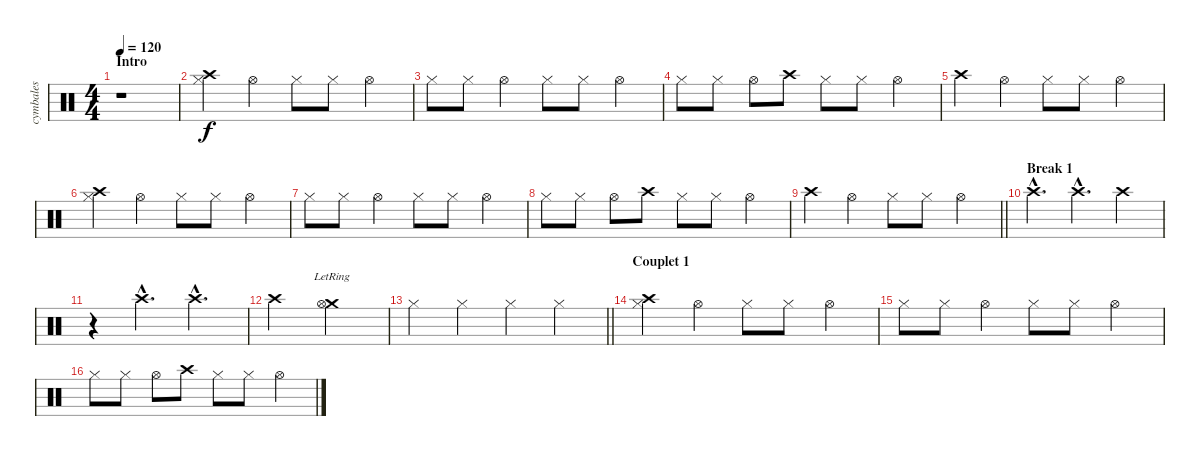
\track ("cymbales" "cymbales") {instrument percussion}
\staff {score}
\articulation defaults
\ts (4 4)
\section ("" "Intro")
\tempo 120
\clef neutral
\ks c
r.1{dy f} |
("Crash high (hit)" "Hi-Hat (closed)").4 "Hi-Hat (open)".4 "Hi-Hat (closed)".8 "Hi-Hat (closed)".8 "Hi-Hat (open)".4 |
"Hi-Hat (closed)".8 "Hi-Hat (closed)".8 "Hi-Hat (open)".4 "Hi-Hat (closed)".8 "Hi-Hat (closed)".8 "Hi-Hat (open)".4 |
"Hi-Hat (closed)".8 "Hi-Hat (closed)".8 "Hi-Hat (open)".8 "Crash high (hit)".8 "Hi-Hat (closed)".8 "Hi-Hat (closed)".8 "Hi-Hat (open)".4 |
"Crash high (hit)".4 "Hi-Hat (open)".4 "Hi-Hat (closed)".8 "Hi-Hat (closed)".8 "Hi-Hat (open)".4 |
("Crash high (hit)" "Hi-Hat (closed)").4 "Hi-Hat (open)".4 "Hi-Hat (closed)".8 "Hi-Hat (closed)".8 "Hi-Hat (open)".4 |
"Hi-Hat (closed)".8 "Hi-Hat (closed)".8 "Hi-Hat (open)".4 "Hi-Hat (closed)".8 "Hi-Hat (closed)".8 "Hi-Hat (open)".4 |
"Hi-Hat (closed)".8 "Hi-Hat (closed)".8 "Hi-Hat (open)".8 "Crash high (hit)".8 "Hi-Hat (closed)".8 "Hi-Hat (closed)".8 "Hi-Hat (open)".4 |
\barLineRight lightlight "Crash high (hit)".4 "Hi-Hat (open)".4 "Hi-Hat (closed)".8 "Hi-Hat (closed)".8 "Hi-Hat (open)".4
|
\section ("" "Break 1")
"Crash high (hit)"{hac}.4{d} "Crash high (hit)"{hac}.4{d} "Crash high (hit)".4 |
r.4 "Crash high (hit)"{hac}.4{d} "Crash high (hit)"{hac}.4{d} |
"Crash high (hit)".2 ("Crash medium (hit)"{lr} "Hi-Hat (open)").2 |
\barLineRight lightlight "Hi-Hat (closed)".4 "Hi-Hat (closed)".4 "Hi-Hat (closed)".4 "Hi-Hat (closed)".4
|
\section ("" "Couplet 1")
("Crash high (hit)" "Hi-Hat (closed)").4 "Hi-Hat (open)".4 "Hi-Hat (closed)".8 "Hi-Hat (closed)".8 "Hi-Hat (open)".4 |
"Hi-Hat (closed)".8 "Hi-Hat (closed)".8 "Hi-Hat (open)".4 "Hi-Hat (closed)".8 "Hi-Hat (closed)".8 "Hi-Hat (open)".4 |
"Hi-Hat (closed)".8 "Hi-Hat (closed)".8 "Hi-Hat (open)".8 "Crash high (hit)".8 "Hi-Hat (closed)".8 "Hi-Hat (closed)".8 "Hi-Hat (open)".4
